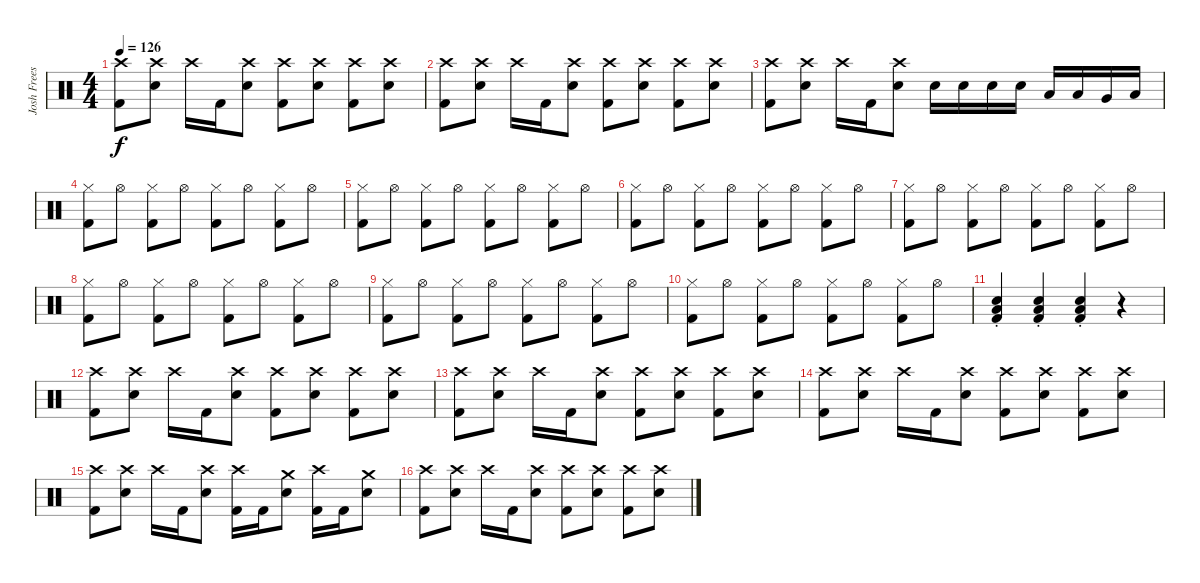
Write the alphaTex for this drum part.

\track ("Josh Freese" "Josh Frees") {instrument percussion}
\staff {score}
\articulation defaults
\ts (4 4)
\tempo 126
\clef neutral
\ks c
("Crash high (hit)" "Kick (hit) 2").8{dy f} ("Crash high (hit)" "Snare (hit) 2").8 "Crash high (hit)".16 "Kick (hit) 2".16 ("Crash high (hit)" "Snare (hit) 2").8 ("Crash high (hit)" "Kick (hit) 2").8 ("Crash high (hit)" "Snare (hit) 2").8 ("Crash high (hit)" "Kick (hit) 2").8 ("Crash high (hit)" "Snare (hit) 2").8 |
("Crash high (hit)" "Kick (hit) 2").8 ("Crash high (hit)" "Snare (hit) 2").8 "Crash high (hit)".16 "Kick (hit) 2".16 ("Crash high (hit)" "Snare (hit) 2").8 ("Crash high (hit)" "Kick (hit) 2").8 ("Crash high (hit)" "Snare (hit) 2").8 ("Crash high (hit)" "Kick (hit) 2").8 ("Crash high (hit)" "Snare (hit) 2").8 |
("Crash high (hit)" "Kick (hit) 2").8 ("Crash high (hit)" "Snare (hit) 2").8 "Crash high (hit)".16 "Kick (hit) 2".16 ("Crash high (hit)" "Snare (hit) 2").8 "Snare (hit) 2".16 "Snare (hit) 2".16 "Snare (hit) 2".16 "Snare (hit) 2".16 "Low Tom (hit)".16 "Low Tom (hit)".16 "Very Low Tom (hit)".16 "Low Floor Tom (hit)".16 |
("Hi-Hat (closed)" "Kick (hit) 2").8 "Hi-Hat (open)".8 ("Hi-Hat (closed)" "Kick (hit) 2").8 "Hi-Hat (open)".8 ("Hi-Hat (closed)" "Kick (hit) 2").8 "Hi-Hat (open)".8 ("Hi-Hat (closed)" "Kick (hit) 2").8 "Hi-Hat (open)".8 |
("Hi-Hat (closed)" "Kick (hit) 2").8 "Hi-Hat (open)".8 ("Hi-Hat (closed)" "Kick (hit) 2").8 "Hi-Hat (open)".8 ("Hi-Hat (closed)" "Kick (hit) 2").8 "Hi-Hat (open)".8 ("Hi-Hat (closed)" "Kick (hit) 2").8 "Hi-Hat (open)".8 |
("Hi-Hat (closed)" "Kick (hit) 2").8 "Hi-Hat (open)".8 ("Hi-Hat (closed)" "Kick (hit) 2").8 "Hi-Hat (open)".8 ("Hi-Hat (closed)" "Kick (hit) 2").8 "Hi-Hat (open)".8 ("Hi-Hat (closed)" "Kick (hit) 2").8 "Hi-Hat (open)".8 |
("Hi-Hat (closed)" "Kick (hit) 2").8 "Hi-Hat (open)".8 ("Hi-Hat (closed)" "Kick (hit) 2").8 "Hi-Hat (open)".8 ("Hi-Hat (closed)" "Kick (hit) 2").8 "Hi-Hat (open)".8 ("Hi-Hat (closed)" "Kick (hit) 2").8 "Hi-Hat (open)".8 |
("Hi-Hat (closed)" "Kick (hit) 2").8 "Hi-Hat (open)".8 ("Hi-Hat (closed)" "Kick (hit) 2").8 "Hi-Hat (open)".8 ("Hi-Hat (closed)" "Kick (hit) 2").8 "Hi-Hat (open)".8 ("Hi-Hat (closed)" "Kick (hit) 2").8 "Hi-Hat (open)".8 |
("Hi-Hat (closed)" "Kick (hit) 2").8 "Hi-Hat (open)".8 ("Hi-Hat (closed)" "Kick (hit) 2").8 "Hi-Hat (open)".8 ("Hi-Hat (closed)" "Kick (hit) 2").8 "Hi-Hat (open)".8 ("Hi-Hat (closed)" "Kick (hit) 2").8 "Hi-Hat (open)".8 |
("Hi-Hat (closed)" "Kick (hit) 2").8 "Hi-Hat (open)".8 ("Hi-Hat (closed)" "Kick (hit) 2").8 "Hi-Hat (open)".8 ("Hi-Hat (closed)" "Kick (hit) 2").8 "Hi-Hat (open)".8 ("Hi-Hat (closed)" "Kick (hit) 2").8 "Hi-Hat (open)".8 |
("Snare (hit) 2"{st} "Low Floor Tom (hit)"{st} "Kick (hit) 2"{st}).4 ("Snare (hit) 2"{st} "Low Floor Tom (hit)"{st} "Kick (hit) 2"{st}).4 ("Snare (hit) 2"{st} "Low Floor Tom (hit)"{st} "Kick (hit) 2"{st}).4 r.4 |
("Crash high (hit)" "Kick (hit) 2").8 ("Crash high (hit)" "Snare (hit) 2").8 "Crash high (hit)".16 "Kick (hit) 2".16 ("Crash high (hit)" "Snare (hit) 2").8 ("Crash high (hit)" "Kick (hit) 2").8 ("Crash high (hit)" "Snare (hit) 2").8 ("Crash high (hit)" "Kick (hit) 2").8 ("Crash high (hit)" "Snare (hit) 2").8 |
("Crash high (hit)" "Kick (hit) 2").8 ("Crash high (hit)" "Snare (hit) 2").8 "Crash high (hit)".16 "Kick (hit) 2".16 ("Crash high (hit)" "Snare (hit) 2").8 ("Crash high (hit)" "Kick (hit) 2").8 ("Crash high (hit)" "Snare (hit) 2").8 ("Crash high (hit)" "Kick (hit) 2").8 ("Crash high (hit)" "Snare (hit) 2").8 |
("Crash high (hit)" "Kick (hit) 2").8 ("Crash high (hit)" "Snare (hit) 2").8 "Crash high (hit)".16 "Kick (hit) 2".16 ("Crash high (hit)" "Snare (hit) 2").8 ("Crash high (hit)" "Kick (hit) 2").8 ("Crash high (hit)" "Snare (hit) 2").8 ("Crash high (hit)" "Kick (hit) 2").8 ("Crash high (hit)" "Snare (hit) 2").8 |
("Crash high (hit)" "Kick (hit) 2").8 ("Crash high (hit)" "Snare (hit) 2").8 "Crash high (hit)".16 "Kick (hit) 2".16 ("Crash high (hit)" "Snare (hit) 2").8 ("Crash high (hit)" "Kick (hit) 2").16 "Kick (hit) 2".16 ("Crash medium (hit)" "Snare (hit) 2").8 ("Crash high (hit)" "Kick (hit) 2").16 "Kick (hit) 2".16 ("Crash medium (hit)" "Snare (hit) 2").8 |
("Crash high (hit)" "Kick (hit) 2").8 ("Crash high (hit)" "Snare (hit) 2").8 "Crash high (hit)".16 "Kick (hit) 2".16 ("Crash high (hit)" "Snare (hit) 2").8 ("Crash high (hit)" "Kick (hit) 2").8 ("Crash high (hit)" "Snare (hit) 2").8 ("Crash high (hit)" "Kick (hit) 2").8 ("Crash high (hit)" "Snare (hit) 2").8
